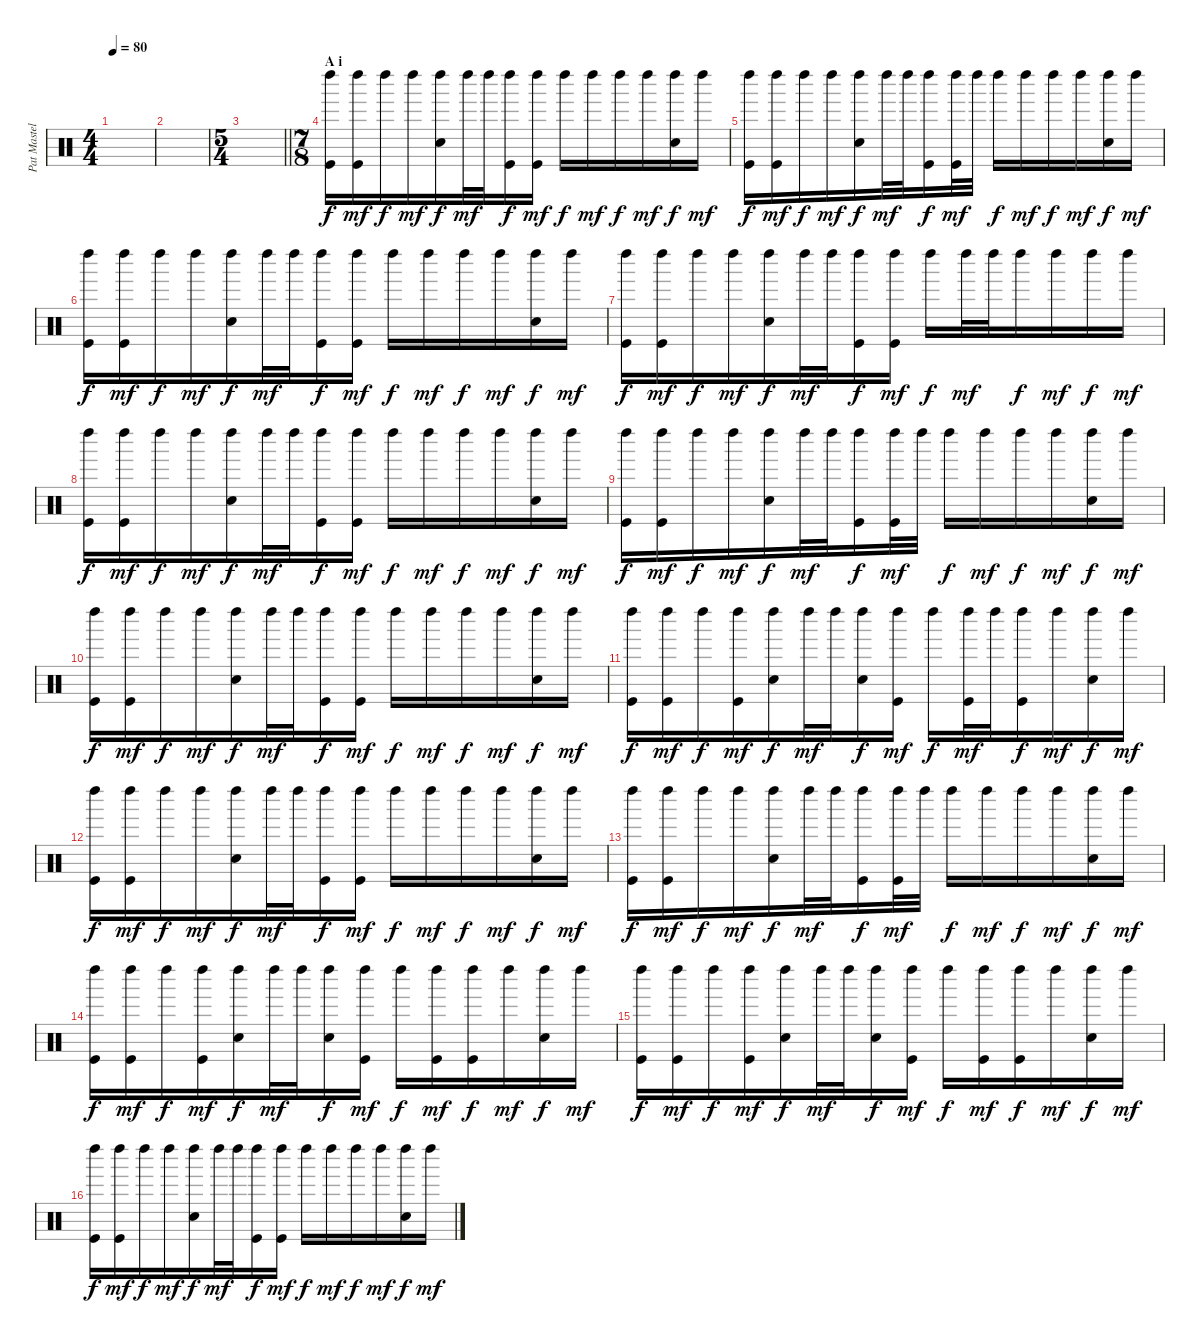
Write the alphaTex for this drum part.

\track ("Pat Mastelotto (Traps / Buttons)" "Pat Mastel") {instrument percussion}
\staff {score}
\articulation defaults
\ts (4 4)
\tempo 80
\clef neutral
\ks c
|
|
\ts (5 4)
\barLineRight lightlight
|
\ts (7 8)
\section ("" "A i")
("Left Maraca (hit)" "Kick (hit)").16 ("Left Maraca (hit)" "Kick (hit)").16{dy mf} "Left Maraca (hit)".16{dy f} "Left Maraca (hit)".16{dy mf} ("Left Maraca (hit)" "Snare (hit) 2").16{dy f} "Left Maraca (hit)".32{dy mf} "Left Maraca (hit)".32 ("Left Maraca (hit)" "Kick (hit)").16{dy f} ("Left Maraca (hit)" "Kick (hit)").16{dy mf} "Left Maraca (hit)".16{dy f} "Left Maraca (hit)".16{dy mf} "Left Maraca (hit)".16{dy f} "Left Maraca (hit)".16{dy mf} ("Left Maraca (hit)" "Snare (hit) 2").16{dy f} "Left Maraca (hit)".16{dy mf} |
("Left Maraca (hit)" "Kick (hit)").16{dy f} ("Left Maraca (hit)" "Kick (hit)").16{dy mf} "Left Maraca (hit)".16{dy f} "Left Maraca (hit)".16{dy mf} ("Left Maraca (hit)" "Snare (hit) 2").16{dy f} "Left Maraca (hit)".32{dy mf} "Left Maraca (hit)".32 ("Left Maraca (hit)" "Kick (hit)").16{dy f} ("Left Maraca (hit)" "Kick (hit)").32{dy mf} "Left Maraca (hit)".32 "Left Maraca (hit)".16{dy f} "Left Maraca (hit)".16{dy mf} "Left Maraca (hit)".16{dy f} "Left Maraca (hit)".16{dy mf} ("Left Maraca (hit)" "Snare (hit) 2").16{dy f} "Left Maraca (hit)".16{dy mf} |
("Left Maraca (hit)" "Kick (hit)").16{dy f} ("Left Maraca (hit)" "Kick (hit)").16{dy mf} "Left Maraca (hit)".16{dy f} "Left Maraca (hit)".16{dy mf} ("Left Maraca (hit)" "Snare (hit) 2").16{dy f} "Left Maraca (hit)".32{dy mf} "Left Maraca (hit)".32 ("Left Maraca (hit)" "Kick (hit)").16{dy f} ("Left Maraca (hit)" "Kick (hit)").16{dy mf} "Left Maraca (hit)".16{dy f} "Left Maraca (hit)".16{dy mf} "Left Maraca (hit)".16{dy f} "Left Maraca (hit)".16{dy mf} ("Left Maraca (hit)" "Snare (hit) 2").16{dy f} "Left Maraca (hit)".16{dy mf} |
("Left Maraca (hit)" "Kick (hit)").16{dy f} ("Left Maraca (hit)" "Kick (hit)").16{dy mf} "Left Maraca (hit)".16{dy f} "Left Maraca (hit)".16{dy mf} ("Left Maraca (hit)" "Snare (hit) 2").16{dy f} "Left Maraca (hit)".32{dy mf} "Left Maraca (hit)".32 ("Left Maraca (hit)" "Kick (hit)").16{dy f} ("Left Maraca (hit)" "Kick (hit)").16{dy mf} "Left Maraca (hit)".16{dy f} "Left Maraca (hit)".32{dy mf} "Left Maraca (hit)".32 "Left Maraca (hit)".16{dy f} "Left Maraca (hit)".16{dy mf} "Left Maraca (hit)".16{dy f} "Left Maraca (hit)".16{dy mf} |
("Left Maraca (hit)" "Kick (hit)").16{dy f} ("Left Maraca (hit)" "Kick (hit)").16{dy mf} "Left Maraca (hit)".16{dy f} "Left Maraca (hit)".16{dy mf} ("Left Maraca (hit)" "Snare (hit) 2").16{dy f} "Left Maraca (hit)".32{dy mf} "Left Maraca (hit)".32 ("Left Maraca (hit)" "Kick (hit)").16{dy f} ("Left Maraca (hit)" "Kick (hit)").16{dy mf} "Left Maraca (hit)".16{dy f} "Left Maraca (hit)".16{dy mf} "Left Maraca (hit)".16{dy f} "Left Maraca (hit)".16{dy mf} ("Left Maraca (hit)" "Snare (hit) 2").16{dy f} "Left Maraca (hit)".16{dy mf} |
("Left Maraca (hit)" "Kick (hit)").16{dy f} ("Left Maraca (hit)" "Kick (hit)").16{dy mf} "Left Maraca (hit)".16{dy f} "Left Maraca (hit)".16{dy mf} ("Left Maraca (hit)" "Snare (hit) 2").16{dy f} "Left Maraca (hit)".32{dy mf} "Left Maraca (hit)".32 ("Left Maraca (hit)" "Kick (hit)").16{dy f} ("Left Maraca (hit)" "Kick (hit)").32{dy mf} "Left Maraca (hit)".32 "Left Maraca (hit)".16{dy f} "Left Maraca (hit)".16{dy mf} "Left Maraca (hit)".16{dy f} "Left Maraca (hit)".16{dy mf} ("Left Maraca (hit)" "Snare (hit) 2").16{dy f} "Left Maraca (hit)".16{dy mf} |
("Left Maraca (hit)" "Kick (hit)").16{dy f} ("Left Maraca (hit)" "Kick (hit)").16{dy mf} "Left Maraca (hit)".16{dy f} "Left Maraca (hit)".16{dy mf} ("Left Maraca (hit)" "Snare (hit) 2").16{dy f} "Left Maraca (hit)".32{dy mf} "Left Maraca (hit)".32 ("Left Maraca (hit)" "Kick (hit)").16{dy f} ("Left Maraca (hit)" "Kick (hit)").16{dy mf} "Left Maraca (hit)".16{dy f} "Left Maraca (hit)".16{dy mf} "Left Maraca (hit)".16{dy f} "Left Maraca (hit)".16{dy mf} ("Left Maraca (hit)" "Snare (hit) 2").16{dy f} "Left Maraca (hit)".16{dy mf} |
("Left Maraca (hit)" "Kick (hit)").16{dy f} ("Left Maraca (hit)" "Kick (hit)").16{dy mf} "Left Maraca (hit)".16{dy f} ("Left Maraca (hit)" "Kick (hit)").16{dy mf} ("Left Maraca (hit)" "Snare (hit) 2").16{dy f} "Left Maraca (hit)".32{dy mf} "Left Maraca (hit)".32 ("Left Maraca (hit)" "Snare (hit) 2").16{dy f} ("Left Maraca (hit)" "Kick (hit)").16{dy mf} "Left Maraca (hit)".16{dy f} ("Left Maraca (hit)" "Kick (hit)").32{dy mf} "Left Maraca (hit)".32 ("Left Maraca (hit)" "Kick (hit)").16{dy f} "Left Maraca (hit)".16{dy mf} ("Left Maraca (hit)" "Snare (hit) 2").16{dy f} "Left Maraca (hit)".16{dy mf} |
("Left Maraca (hit)" "Kick (hit)").16{dy f} ("Left Maraca (hit)" "Kick (hit)").16{dy mf} "Left Maraca (hit)".16{dy f} "Left Maraca (hit)".16{dy mf} ("Left Maraca (hit)" "Snare (hit) 2").16{dy f} "Left Maraca (hit)".32{dy mf} "Left Maraca (hit)".32 ("Left Maraca (hit)" "Kick (hit)").16{dy f} ("Left Maraca (hit)" "Kick (hit)").16{dy mf} "Left Maraca (hit)".16{dy f} "Left Maraca (hit)".16{dy mf} "Left Maraca (hit)".16{dy f} "Left Maraca (hit)".16{dy mf} ("Left Maraca (hit)" "Snare (hit) 2").16{dy f} "Left Maraca (hit)".16{dy mf} |
("Left Maraca (hit)" "Kick (hit)").16{dy f} ("Left Maraca (hit)" "Kick (hit)").16{dy mf} "Left Maraca (hit)".16{dy f} "Left Maraca (hit)".16{dy mf} ("Left Maraca (hit)" "Snare (hit) 2").16{dy f} "Left Maraca (hit)".32{dy mf} "Left Maraca (hit)".32 ("Left Maraca (hit)" "Kick (hit)").16{dy f} ("Left Maraca (hit)" "Kick (hit)").32{dy mf} "Left Maraca (hit)".32 "Left Maraca (hit)".16{dy f} "Left Maraca (hit)".16{dy mf} "Left Maraca (hit)".16{dy f} "Left Maraca (hit)".16{dy mf} ("Left Maraca (hit)" "Snare (hit) 2").16{dy f} "Left Maraca (hit)".16{dy mf} |
("Left Maraca (hit)" "Kick (hit)").16{dy f} ("Left Maraca (hit)" "Kick (hit)").16{dy mf} "Left Maraca (hit)".16{dy f} ("Left Maraca (hit)" "Kick (hit)").16{dy mf} ("Left Maraca (hit)" "Snare (hit) 2").16{dy f} "Left Maraca (hit)".32{dy mf} "Left Maraca (hit)".32 ("Left Maraca (hit)" "Snare (hit) 2").16{dy f} ("Left Maraca (hit)" "Kick (hit)").16{dy mf} "Left Maraca (hit)".16{dy f} ("Left Maraca (hit)" "Kick (hit)").16{dy mf} ("Left Maraca (hit)" "Kick (hit)").16{dy f} "Left Maraca (hit)".16{dy mf} ("Left Maraca (hit)" "Snare (hit) 2").16{dy f} "Left Maraca (hit)".16{dy mf} |
("Left Maraca (hit)" "Kick (hit)").16{dy f} ("Left Maraca (hit)" "Kick (hit)").16{dy mf} "Left Maraca (hit)".16{dy f} ("Left Maraca (hit)" "Kick (hit)").16{dy mf} ("Left Maraca (hit)" "Snare (hit) 2").16{dy f} "Left Maraca (hit)".32{dy mf} "Left Maraca (hit)".32 ("Left Maraca (hit)" "Snare (hit) 2").16{dy f} ("Left Maraca (hit)" "Kick (hit)").16{dy mf} "Left Maraca (hit)".16{dy f} ("Left Maraca (hit)" "Kick (hit)").16{dy mf} ("Left Maraca (hit)" "Kick (hit)").16{dy f} "Left Maraca (hit)".16{dy mf} ("Left Maraca (hit)" "Snare (hit) 2").16{dy f} "Left Maraca (hit)".16{dy mf} |
("Left Maraca (hit)" "Kick (hit)").16{dy f} ("Left Maraca (hit)" "Kick (hit)").16{dy mf} "Left Maraca (hit)".16{dy f} "Left Maraca (hit)".16{dy mf} ("Left Maraca (hit)" "Snare (hit) 2").16{dy f} "Left Maraca (hit)".32{dy mf} "Left Maraca (hit)".32 ("Left Maraca (hit)" "Kick (hit)").16{dy f} ("Left Maraca (hit)" "Kick (hit)").16{dy mf} "Left Maraca (hit)".16{dy f} "Left Maraca (hit)".16{dy mf} "Left Maraca (hit)".16{dy f} "Left Maraca (hit)".16{dy mf} ("Left Maraca (hit)" "Snare (hit) 2").16{dy f} "Left Maraca (hit)".16{dy mf}
